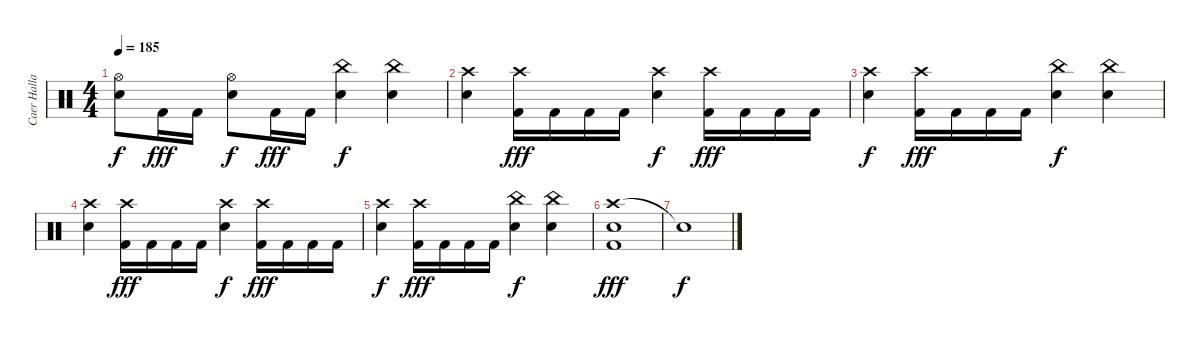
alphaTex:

\track ("Caer Hallam Generis" "Caer Halla") {instrument percussion}
\staff {score}
\articulation defaults
\ts (4 4)
\tempo 185
\clef neutral
\ks c
("Hi-Hat (open)" "Snare (hit) 2").8{dy f} "Kick (hit) 2".16{dy fff} "Kick (hit) 2".16 ("Hi-Hat (open)" "Snare (hit) 2").8{dy f} "Kick (hit) 2".16{dy fff} "Kick (hit) 2".16 ("China (hit)" "Snare (hit) 2").4{dy f} ("China (hit)" "Snare (hit) 2").4 |
("Crash high (hit)" "Snare (hit) 2").4 ("Crash high (hit)" "Kick (hit) 2").16{dy fff} "Kick (hit) 2".16 "Kick (hit) 2".16 "Kick (hit) 2".16 ("Crash high (hit)" "Snare (hit) 2").4{dy f} ("Crash high (hit)" "Kick (hit) 2").16{dy fff} "Kick (hit) 2".16 "Kick (hit) 2".16 "Kick (hit) 2".16 |
("Crash high (hit)" "Snare (hit) 2").4{dy f} ("Crash high (hit)" "Kick (hit) 2").16{dy fff} "Kick (hit) 2".16 "Kick (hit) 2".16 "Kick (hit) 2".16 ("China (hit)" "Snare (hit) 2").4{dy f} ("China (hit)" "Snare (hit) 2").4 |
("Crash high (hit)" "Snare (hit) 2").4 ("Crash high (hit)" "Kick (hit) 2").16{dy fff} "Kick (hit) 2".16 "Kick (hit) 2".16 "Kick (hit) 2".16 ("Crash high (hit)" "Snare (hit) 2").4{dy f} ("Crash high (hit)" "Kick (hit) 2").16{dy fff} "Kick (hit) 2".16 "Kick (hit) 2".16 "Kick (hit) 2".16 |
("Crash high (hit)" "Snare (hit) 2").4{dy f} ("Crash high (hit)" "Kick (hit) 2").16{dy fff} "Kick (hit) 2".16 "Kick (hit) 2".16 "Kick (hit) 2".16 ("China (hit)" "Snare (hit) 2").4{dy f} ("China (hit)" "Snare (hit) 2").4 |
("Crash high (hit)" "Snare (hit) 2" "Kick (hit) 2").1{dy fff} |
"Snare (hit)"{t}.1{dy f}
